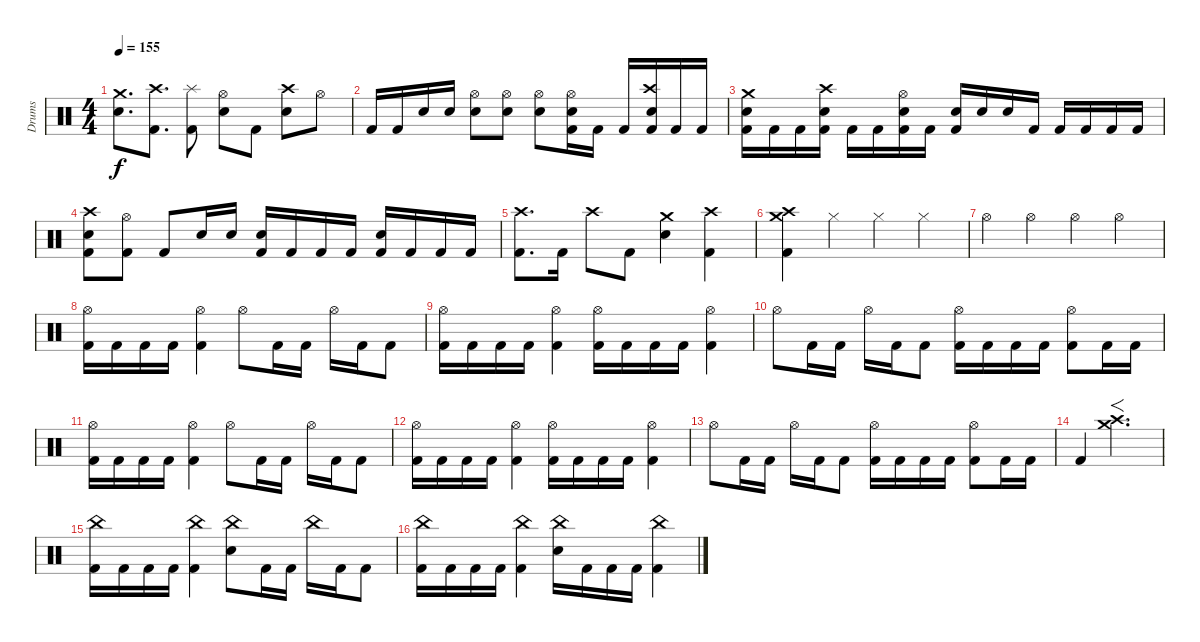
\track ("Drums" "Drums") {instrument percussion}
\staff {score}
\articulation defaults
\ts (4 4)
\tempo 155
\clef neutral
\ks c
("Crash medium (hit)" "Electric Snare (hit)").8{d dy f} ("Crash high (hit)" "Kick (hit) 2").8{d} ("Splash (hit)" "Kick (hit) 2").8 ("Hi-Hat (open)" "Electric Snare (hit)").8 "Kick (hit) 2".8 ("Crash high (hit)" "Electric Snare (hit)").8 "Hi-Hat (open)".8 |
"Kick (hit) 2".16 "Kick (hit) 2".16 "Electric Snare (hit)".16 "Electric Snare (hit)".16 ("Hi-Hat (open)" "Electric Snare (hit)").8 ("Hi-Hat (open)" "Electric Snare (hit)").8 ("Hi-Hat (open)" "Electric Snare (hit)").8 ("Hi-Hat (open)" "Electric Snare (hit)" "Kick (hit) 2").16 "Kick (hit) 2".16 "Kick (hit) 2".16 ("Crash high (hit)" "Electric Snare (hit)" "Kick (hit) 2").16 "Kick (hit) 2".16 "Kick (hit) 2".16 |
("Crash medium (hit)" "Electric Snare (hit)" "Kick (hit) 2").16 "Kick (hit) 2".16 "Kick (hit) 2".16 ("Crash high (hit)" "Electric Snare (hit)" "Kick (hit) 2").16 "Kick (hit) 2".16 "Kick (hit) 2".16 ("Hi-Hat (open)" "Electric Snare (hit)" "Kick (hit) 2").16 "Kick (hit) 2".16 ("Electric Snare (hit)" "Kick (hit) 2").16 "Electric Snare (hit)".16 "Electric Snare (hit)".16 "Kick (hit) 2".16 "Kick (hit) 2".16 "Kick (hit) 2".16 "Kick (hit) 2".16 "Kick (hit) 2".16 |
("Crash high (hit)" "Electric Snare (hit)" "Kick (hit) 2").8 ("Hi-Hat (open)" "Kick (hit) 2").8 "Kick (hit) 2".8 "Electric Snare (hit)".16 "Electric Snare (hit)".16 ("Electric Snare (hit)" "Kick (hit) 2").16 "Kick (hit) 2".16 "Kick (hit) 2".16 "Kick (hit) 2".16 ("Electric Snare (hit)" "Kick (hit) 2").16 "Kick (hit) 2".16 "Kick (hit) 2".16 "Kick (hit) 2".16 |
("Crash high (hit)" "Kick (hit) 2").8{d} "Kick (hit) 2".16 "Crash high (hit)".8 "Kick (hit) 2".8 ("Crash medium (hit)" "Electric Snare (hit)").4 ("Crash high (hit)" "Kick (hit) 2").4 |
("Crash high (hit)" "Crash medium (hit)" "Kick (hit) 2").4 "Hi-Hat (closed)".4 "Hi-Hat (closed)".4 "Hi-Hat (closed)".4 |
"Hi-Hat (open)".4 "Hi-Hat (open)".4 "Hi-Hat (open)".4 "Hi-Hat (open)".4 |
("Hi-Hat (open)" "Kick (hit) 2").16 "Kick (hit) 2".16 "Kick (hit) 2".16 "Kick (hit) 2".16 ("Hi-Hat (open)" "Kick (hit) 2").4 "Hi-Hat (open)".8 "Kick (hit) 2".16 "Kick (hit) 2".16 "Hi-Hat (open)".16 "Kick (hit) 2".16 "Kick (hit) 2".8 |
("Hi-Hat (open)" "Kick (hit) 2").16 "Kick (hit) 2".16 "Kick (hit) 2".16 "Kick (hit) 2".16 ("Hi-Hat (open)" "Kick (hit) 2").4 ("Hi-Hat (open)" "Kick (hit) 2").16 "Kick (hit) 2".16 "Kick (hit) 2".16 "Kick (hit) 2".16 ("Hi-Hat (open)" "Kick (hit) 2").4 |
"Hi-Hat (open)".8 "Kick (hit) 2".16 "Kick (hit) 2".16 "Hi-Hat (open)".16 "Kick (hit) 2".16 "Kick (hit) 2".8 ("Hi-Hat (open)" "Kick (hit) 2").16 "Kick (hit) 2".16 "Kick (hit) 2".16 "Kick (hit) 2".16 ("Hi-Hat (open)" "Kick (hit) 2").8 "Kick (hit) 2".16 "Kick (hit) 2".16 |
("Hi-Hat (open)" "Kick (hit) 2").16 "Kick (hit) 2".16 "Kick (hit) 2".16 "Kick (hit) 2".16 ("Hi-Hat (open)" "Kick (hit) 2").4 "Hi-Hat (open)".8 "Kick (hit) 2".16 "Kick (hit) 2".16 "Hi-Hat (open)".16 "Kick (hit) 2".16 "Kick (hit) 2".8 |
("Hi-Hat (open)" "Kick (hit) 2").16 "Kick (hit) 2".16 "Kick (hit) 2".16 "Kick (hit) 2".16 ("Hi-Hat (open)" "Kick (hit) 2").4 ("Hi-Hat (open)" "Kick (hit) 2").16 "Kick (hit) 2".16 "Kick (hit) 2".16 "Kick (hit) 2".16 ("Hi-Hat (open)" "Kick (hit) 2").4 |
"Hi-Hat (open)".8 "Kick (hit) 2".16 "Kick (hit) 2".16 "Hi-Hat (open)".16 "Kick (hit) 2".16 "Kick (hit) 2".8 ("Hi-Hat (open)" "Kick (hit) 2").16 "Kick (hit) 2".16 "Kick (hit) 2".16 "Kick (hit) 2".16 ("Hi-Hat (open)" "Kick (hit) 2").8 "Kick (hit) 2".16 "Kick (hit) 2".16 |
"Kick (hit) 2".4 ("Crash medium (hit)" "Crash high (hit)").2{f d} |
("China (hit)" "Kick (hit) 2").16 "Kick (hit) 2".16 "Kick (hit) 2".16 "Kick (hit) 2".16 ("China (hit)" "Kick (hit) 2").4 ("China (hit)" "Electric Snare (hit)").8 "Kick (hit) 2".16 "Kick (hit) 2".16 "China (hit)".16 "Kick (hit) 2".16 "Kick (hit) 2".8 |
("China (hit)" "Kick (hit) 2").16 "Kick (hit) 2".16 "Kick (hit) 2".16 "Kick (hit) 2".16 ("China (hit)" "Kick (hit) 2").4 ("China (hit)" "Electric Snare (hit)").16 "Kick (hit) 2".16 "Kick (hit) 2".16 "Kick (hit) 2".16 ("China (hit)" "Kick (hit) 2").4
